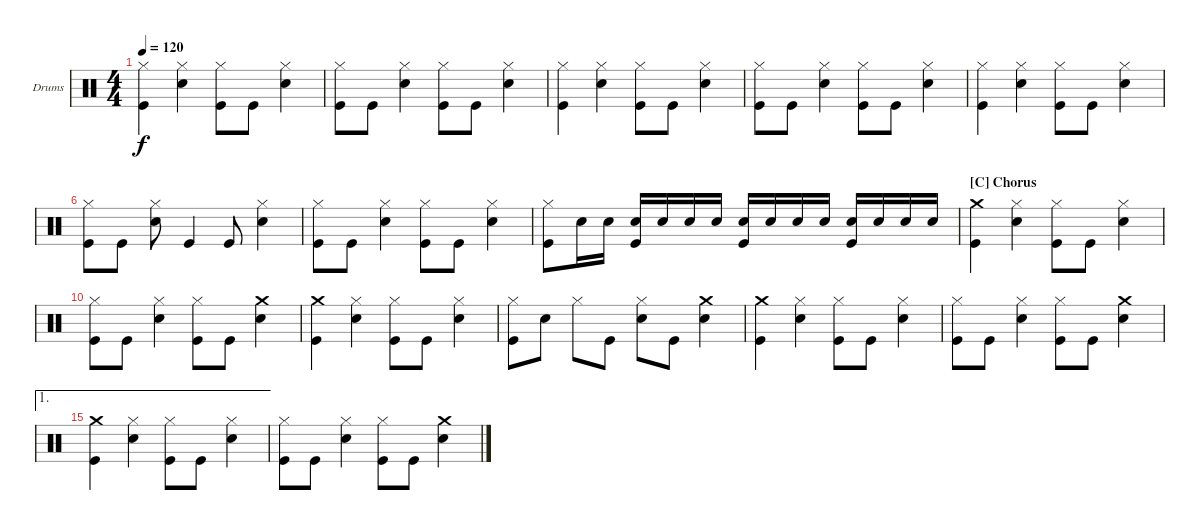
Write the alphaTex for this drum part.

\bracketExtendMode nobrackets
\firstSystemTrackNameOrientation horizontal
\otherSystemsTrackNameOrientation horizontal
\defaultBarNumberDisplay FirstOfSystem
\track ("Drumkit" "Drums") {instrument percussion}
\staff {score}
\articulation defaults
\ts (4 4)
\scale
0.25
\tempo 120
\accidentals auto
\clef neutral
\ottava regular
\simile none
\scale
0.264151
\ks c
("Hi-Hat (closed)" "Kick (hit)").4{dy f} ("Hi-Hat (closed)" "Snare (hit) 2").4 ("Hi-Hat (closed)" "Kick (hit)").8 "Kick (hit)".8 ("Hi-Hat (closed)" "Snare (hit) 2").4 |
\scale
0.25
\scale
0.245283 ("Hi-Hat (closed)" "Kick (hit)").8 "Kick (hit)".8 ("Hi-Hat (closed)" "Snare (hit) 2").4 ("Hi-Hat (closed)" "Kick (hit)").8 "Kick (hit)".8 ("Hi-Hat (closed)" "Snare (hit) 2").4 |
\scale
0.25
\scale
0.245283 ("Hi-Hat (closed)" "Kick (hit)").4 ("Hi-Hat (closed)" "Snare (hit) 2").4 ("Hi-Hat (closed)" "Kick (hit)").8 "Kick (hit)".8 ("Hi-Hat (closed)" "Snare (hit) 2").4 |
\scale
0.25
\scale
0.245283 ("Hi-Hat (closed)" "Kick (hit)").8 "Kick (hit)".8 ("Hi-Hat (closed)" "Snare (hit) 2").4 ("Hi-Hat (closed)" "Kick (hit)").8 "Kick (hit)".8 ("Hi-Hat (closed)" "Snare (hit) 2").4 |
\scale
0.21875
\scale
0.197269 ("Hi-Hat (closed)" "Kick (hit)").4 ("Hi-Hat (closed)" "Snare (hit) 2").4 ("Hi-Hat (closed)" "Kick (hit)").8 "Kick (hit)".8 ("Hi-Hat (closed)" "Snare (hit) 2").4 |
\scale
0.21875
\scale
0.227618 ("Hi-Hat (closed)" "Kick (hit)").8 "Kick (hit)".8 ("Hi-Hat (closed)" "Snare (hit) 2").8 "Kick (hit)".4 "Kick (hit)".8 ("Hi-Hat (closed)" "Snare (hit) 2").4 |
\scale
0.21875
\scale
0.212443 ("Hi-Hat (closed)" "Kick (hit)").8 "Kick (hit)".8 ("Hi-Hat (closed)" "Snare (hit) 2").4 ("Hi-Hat (closed)" "Kick (hit)").8 "Kick (hit)".8 ("Hi-Hat (closed)" "Snare (hit) 2").4 |
\scale
0.34375
\scale
0.362671 ("Hi-Hat (closed)" "Kick (hit)").8 "Snare (hit) 2".16 "Snare (hit) 2".16 ("Snare (hit) 2" "Kick (hit)").16 "Snare (hit) 2".16 "Snare (hit) 2".16 "Snare (hit) 2".16 ("Snare (hit) 2" "Kick (hit)").16 "Snare (hit) 2".16 "Snare (hit) 2".16 "Snare (hit) 2".16 ("Snare (hit) 2" "Kick (hit)").16 "Snare (hit) 2".16 "Snare (hit) 2".16 "Snare (hit) 2".16 |
\section ("C" "Chorus")
\scale
0.25
\scale
0.236364 ("Crash medium (hit)" "Kick (hit)").4 ("Hi-Hat (closed)" "Snare (hit) 2").4 ("Hi-Hat (closed)" "Kick (hit)").8 "Kick (hit)".8 ("Hi-Hat (closed)" "Snare (hit) 2").4 |
\scale
0.25
\scale
0.254545 ("Hi-Hat (closed)" "Kick (hit)").8 "Kick (hit)".8 ("Hi-Hat (closed)" "Snare (hit) 2").4 ("Hi-Hat (closed)" "Kick (hit)").8 "Kick (hit)".8 ("Crash medium (hit)" "Snare (hit) 2").4 |
\scale
0.25
\scale
0.236364 ("Crash medium (hit)" "Kick (hit)").4 ("Hi-Hat (closed)" "Snare (hit) 2").4 ("Hi-Hat (closed)" "Kick (hit)").8 "Kick (hit)".8 ("Hi-Hat (closed)" "Snare (hit) 2").4 |
\scale
0.25
\scale
0.272727 ("Hi-Hat (closed)" "Kick (hit)").8 "Snare (hit) 2".8 "Hi-Hat (closed)".8 "Kick (hit)".8 ("Hi-Hat (closed)" "Snare (hit) 2").8 "Kick (hit)".8 ("Crash medium (hit)" "Snare (hit) 2").4 |
\scale
0.240741 ("Crash medium (hit)" "Kick (hit)").4 ("Hi-Hat (closed)" "Snare (hit) 2").4 ("Hi-Hat (closed)" "Kick (hit)").8 "Kick (hit)".8 ("Hi-Hat (closed)" "Snare (hit) 2").4 |
\scale
0.259259 ("Hi-Hat (closed)" "Kick (hit)").8 "Kick (hit)".8 ("Hi-Hat (closed)" "Snare (hit) 2").4 ("Hi-Hat (closed)" "Kick (hit)").8 "Kick (hit)".8 ("Crash medium (hit)" "Snare (hit) 2").4 |
\ae 1
\scale
0.240741 ("Crash medium (hit)" "Kick (hit)").4 ("Hi-Hat (closed)" "Snare (hit) 2").4 ("Hi-Hat (closed)" "Kick (hit)").8 "Kick (hit)".8 ("Hi-Hat (closed)" "Snare (hit) 2").4 |
\scale
0.259259 ("Hi-Hat (closed)" "Kick (hit)").8 "Kick (hit)".8 ("Hi-Hat (closed)" "Snare (hit) 2").4 ("Hi-Hat (closed)" "Kick (hit)").8 "Kick (hit)".8 ("Crash medium (hit)" "Snare (hit) 2").4
